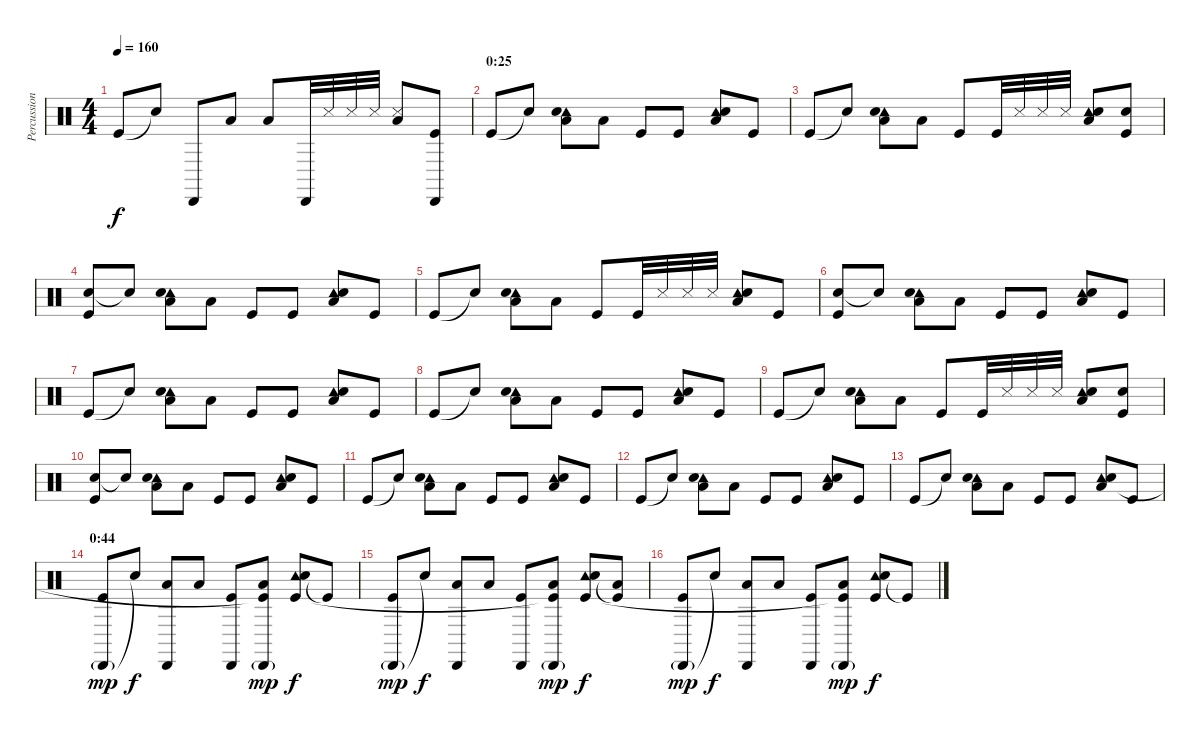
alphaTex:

\track ("Percussion" "Percussion") {instrument percussion}
\staff {score}
\articulation defaults
\ts (4 4)
\tempo 160
\clef neutral
\ks c "Kick (hit)".8{dy f} "Snare (hit)"{t}.8 "Cabasa (hit)".8 "Low Tom (hit)".8 "Low Tom (hit)".8 "Cabasa (hit)".32 "Snare (side stick) 3".32 "Snare (side stick) 3".32 "Snare (side stick) 3".32
("Low Tom (hit)" "Snare (side stick) 3").8 ("Cabasa (hit)" "Kick (hit)").8 |
\section ("" "0:25")
"Kick (hit)".8 "Snare (hit)"{t}.8 ("Tambourine (hit)" "Hand Clap (hit)" "Low Tom (hit)").8 "Low Tom (hit)".8 "Kick (hit)".8 "Kick (hit)".8 ("Tambourine (hit)" "Hand Clap (hit)" "Low Tom (hit)").8 "Kick (hit)".8 |
"Kick (hit)".8 "Snare (hit)"{t}.8 ("Tambourine (hit)" "Hand Clap (hit)" "Low Tom (hit)").8 "Low Tom (hit)".8 "Kick (hit)".8 "Kick (hit)".32 "Snare (side stick) 3".32 "Snare (side stick) 3".32 "Snare (side stick) 3".32 ("Tambourine (hit)" "Hand Clap (hit)" "Low Tom (hit)").8 ("Hand Clap (hit)" "Kick (hit)").8 |
("Hand Clap (hit)" "Kick (hit)").8 "Snare (hit)"{t}.8 ("Tambourine (hit)" "Hand Clap (hit)" "Low Tom (hit)").8 "Low Tom (hit)".8 "Kick (hit)".8 "Kick (hit)".8 ("Tambourine (hit)" "Hand Clap (hit)" "Low Tom (hit)").8 "Kick (hit)".8 |
"Kick (hit)".8 "Snare (hit)"{t}.8 ("Tambourine (hit)" "Hand Clap (hit)" "Low Tom (hit)").8 "Low Tom (hit)".8 "Kick (hit)".8 "Kick (hit)".32 "Snare (side stick) 3".32 "Snare (side stick) 3".32 "Snare (side stick) 3".32 ("Tambourine (hit)" "Hand Clap (hit)" "Low Tom (hit)").8 "Kick (hit)".8 |
("Hand Clap (hit)" "Kick (hit)").8 "Snare (hit)"{t}.8 ("Tambourine (hit)" "Hand Clap (hit)" "Low Tom (hit)").8 "Low Tom (hit)".8 "Kick (hit)".8 "Kick (hit)".8 ("Tambourine (hit)" "Hand Clap (hit)" "Low Tom (hit)").8 "Kick (hit)".8 |
"Kick (hit)".8 "Snare (hit)"{t}.8 ("Tambourine (hit)" "Hand Clap (hit)" "Low Tom (hit)").8 "Low Tom (hit)".8 "Kick (hit)".8 "Kick (hit)".8 ("Tambourine (hit)" "Hand Clap (hit)" "Low Tom (hit)").8 "Kick (hit)".8 |
"Kick (hit)".8 "Snare (hit)"{t}.8 ("Tambourine (hit)" "Hand Clap (hit)" "Low Tom (hit)").8 "Low Tom (hit)".8 "Kick (hit)".8 "Kick (hit)".8 ("Tambourine (hit)" "Hand Clap (hit)" "Low Tom (hit)").8 "Kick (hit)".8 |
"Kick (hit)".8 "Snare (hit)"{t}.8 ("Tambourine (hit)" "Hand Clap (hit)" "Low Tom (hit)").8 "Low Tom (hit)".8 "Kick (hit)".8 "Kick (hit)".32 "Snare (side stick) 3".32 "Snare (side stick) 3".32 "Snare (side stick) 3".32 ("Tambourine (hit)" "Hand Clap (hit)" "Low Tom (hit)").8 ("Hand Clap (hit)" "Kick (hit)").8 |
("Hand Clap (hit)" "Kick (hit)").8 "Snare (hit)"{t}.8 ("Tambourine (hit)" "Hand Clap (hit)" "Low Tom (hit)").8 "Low Tom (hit)".8 "Kick (hit)".8 "Kick (hit)".8 ("Tambourine (hit)" "Hand Clap (hit)" "Low Tom (hit)").8 "Kick (hit)".8 |
"Kick (hit)".8 "Snare (hit)"{t}.8 ("Tambourine (hit)" "Hand Clap (hit)" "Low Tom (hit)").8 "Low Tom (hit)".8 "Kick (hit)".8 "Kick (hit)".8 ("Tambourine (hit)" "Hand Clap (hit)" "Low Tom (hit)").8 "Kick (hit)".8 |
"Kick (hit)".8 "Snare (hit)"{t}.8 ("Tambourine (hit)" "Hand Clap (hit)" "Low Tom (hit)").8 "Low Tom (hit)".8 "Kick (hit)".8 "Kick (hit)".8 ("Tambourine (hit)" "Hand Clap (hit)" "Low Tom (hit)").8 "Kick (hit)".8 |
"Kick (hit)".8 "Snare (hit)"{t}.8 ("Tambourine (hit)" "Hand Clap (hit)" "Low Tom (hit)").8 "Low Tom (hit)".8 "Kick (hit)".8 "Kick (hit)".8 ("Tambourine (hit)" "Hand Clap (hit)" "Low Tom (hit)").8 "Kick (hit)".8 |
\section ("" "0:44")
("Cabasa (hit)"{g} "Kick (hit)").8{dy mp} "Snare (hit)"{t}.8{dy f} ("Cabasa (hit)" "Low Tom (hit)").8 "Low Tom (hit)".8 ("Cabasa (hit)" "Kick (hit)").8 ("Cabasa (hit)"{g} "Low Tom (hit)" "Kick (hit)"{t}).8{dy mp} ("Tambourine (hit)" "Hand Clap (hit)" "Kick (hit)").8{dy f} "Kick (hit)"{t}.8 |
("Cabasa (hit)"{g} "Kick (hit)").8{dy mp} "Snare (hit)"{t}.8{dy f} ("Cabasa (hit)" "Low Tom (hit)").8 "Low Tom (hit)".8 ("Cabasa (hit)" "Kick (hit)").8 ("Cabasa (hit)"{g} "Low Tom (hit)" "Kick (hit)"{t}).8{dy mp} ("Tambourine (hit)" "Hand Clap (hit)" "Kick (hit)").8{dy f} ("Low Tom (hit)" "Kick (hit)"{t}).8 |
("Cabasa (hit)"{g} "Kick (hit)").8{dy mp} "Snare (hit)"{t}.8{dy f} ("Cabasa (hit)" "Low Tom (hit)").8 "Low Tom (hit)".8 ("Cabasa (hit)" "Kick (hit)").8 ("Cabasa (hit)"{g} "Low Tom (hit)" "Kick (hit)"{t}).8{dy mp} ("Tambourine (hit)" "Hand Clap (hit)" "Kick (hit)").8{dy f} "Kick (hit)"{t}.8
